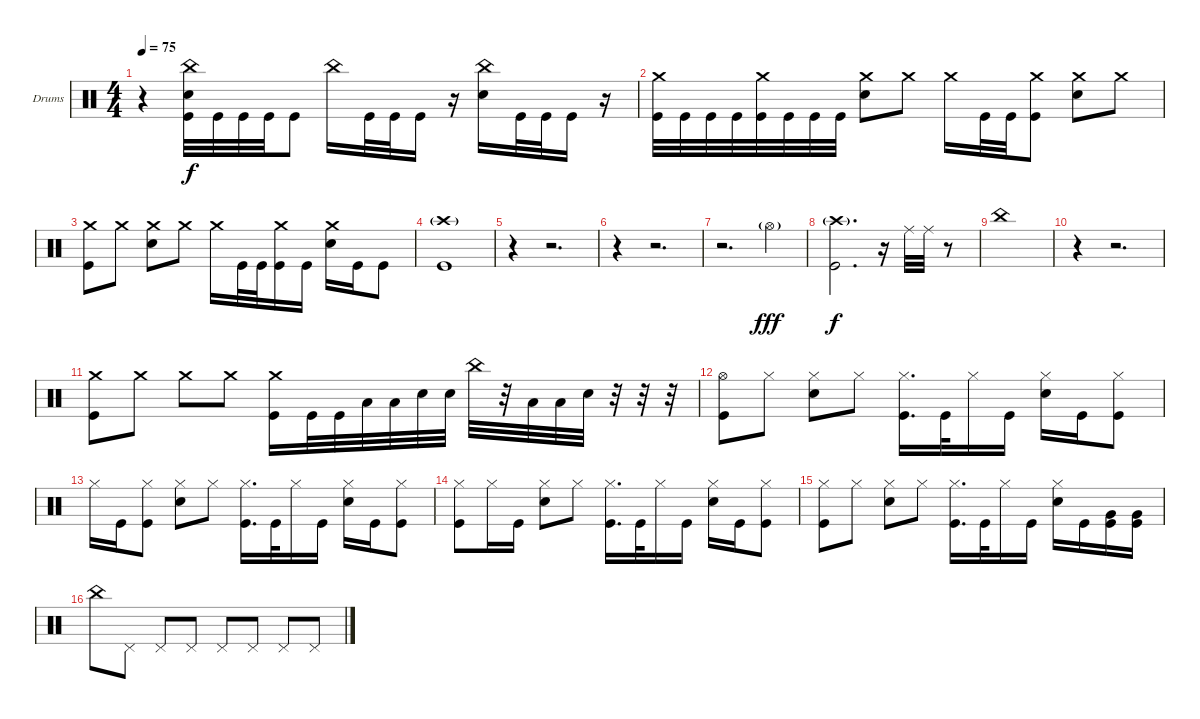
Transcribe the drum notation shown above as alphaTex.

\bracketExtendMode groupsimilarinstruments
\firstSystemTrackNameOrientation horizontal
\otherSystemsTrackNameOrientation horizontal
\track ("Drumkit" "Drums") {instrument percussion}
\staff {score}
\articulation defaults
\ts (4 4)
\tempo 75
\clef neutral
\ks c
r.4{dy f} ("China (hit)" "Snare (hit) 2" "Kick (hit)").32 "Kick (hit)".32 "Kick (hit)".32 "Kick (hit)".32 "Kick (hit)".8 "China (hit)".16 "Kick (hit)".32 "Kick (hit)".32 "Kick (hit)".16 r.16 ("China (hit)" "Snare (hit) 2").16 "Kick (hit)".32 "Kick (hit)".32 "Kick (hit)".16 r.16 |
("Kick (hit)" "Crash medium (hit)").32 "Kick (hit)".32 "Kick (hit)".32 "Kick (hit)".32 ("Kick (hit)" "Crash medium (hit)").32 "Kick (hit)".32 "Kick (hit)".32 "Kick (hit)".32 ("Snare (hit) 2" "Crash medium (hit)").8 "Crash medium (hit)".8 "Crash medium (hit)".16 "Kick (hit)".32 "Kick (hit)".32 ("Kick (hit)" "Crash medium (hit)").8 ("Snare (hit) 2" "Crash medium (hit)").8 "Crash medium (hit)".8 |
("Kick (hit)" "Crash medium (hit)").8 "Crash medium (hit)".8 ("Snare (hit) 2" "Crash medium (hit)").8 "Crash medium (hit)".8 "Crash medium (hit)".16 "Kick (hit)".32 "Kick (hit)".32 ("Kick (hit)" "Crash medium (hit)").16 "Kick (hit)".16 ("Snare (hit) 2" "Crash medium (hit)").16 "Kick (hit)".16 "Kick (hit)".8 |
("Crash high (hit)"{g} "Kick (hit)").1 |
r.4 r.2{d} |
r.4 r.2{d} |
r.2{d} "Hi-Hat (open)"{g}.4{dy fff} |
("Kick (hit)" "Crash high (hit)"{g}).2{d dy f} r.16 "Ride (middle)".32 "Ride (middle)".32 r.8 |
"China (hit)".1 |
r.4 r.2{d} |
("Kick (hit)" "Crash medium (hit)").8 "Crash medium (hit)".8 "Crash medium (hit)".8 "Crash medium (hit)".8 ("Kick (hit)" "Crash medium (hit)").16 "Kick (hit)".32 "Kick (hit)".32 "Low Tom (hit)".32 "Low Tom (hit)".32 "Snare (hit) 2".32 "Snare (hit) 2".32 "China (hit)".32 r.32 "Low Tom (hit)".32 "Low Tom (hit)".32 "Snare (hit) 2".32 r.32 r.32 r.32 |
("Kick (hit)" "Hi-Hat (open)").8 "Hi-Hat (closed)".8 ("Snare (hit) 2" "Hi-Hat (closed)").8 "Hi-Hat (closed)".8 ("Kick (hit)" "Hi-Hat (closed)").16{d} "Kick (hit)".32 "Hi-Hat (closed)".16 "Kick (hit)".16 ("Snare (hit) 2" "Hi-Hat (closed)").16 "Kick (hit)".16 ("Kick (hit)" "Hi-Hat (closed)").8 |
"Hi-Hat (closed)".16 "Kick (hit)".16 ("Kick (hit)" "Hi-Hat (closed)").8 ("Snare (hit) 2" "Hi-Hat (closed)").8 "Hi-Hat (closed)".8 ("Kick (hit)" "Hi-Hat (closed)").16{d} "Kick (hit)".32 "Hi-Hat (closed)".16 "Kick (hit)".16 ("Snare (hit) 2" "Hi-Hat (closed)").16 "Kick (hit)".16 ("Kick (hit)" "Hi-Hat (closed)").8 |
("Kick (hit)" "Hi-Hat (closed)").8 "Hi-Hat (closed)".16 "Kick (hit)".16 ("Snare (hit) 2" "Hi-Hat (closed)").8 "Hi-Hat (closed)".8 ("Kick (hit)" "Hi-Hat (closed)").16{d} "Kick (hit)".32 "Hi-Hat (closed)".16 "Kick (hit)".16 ("Snare (hit) 2" "Hi-Hat (closed)").16 "Kick (hit)".16 ("Kick (hit)" "Hi-Hat (closed)").8 |
("Kick (hit)" "Hi-Hat (closed)").8 "Hi-Hat (closed)".8 ("Snare (hit) 2" "Hi-Hat (closed)").8 "Hi-Hat (closed)".8 ("Kick (hit)" "Hi-Hat (closed)").16{d} "Kick (hit)".32 "Hi-Hat (closed)".16 "Kick (hit)".16 ("Snare (hit) 2" "Hi-Hat (closed)").16 "Kick (hit)".16 ("Kick (hit)" "Very Low Tom (hit)").16 ("Very Low Tom (hit)" "Kick (hit)").16 |
"China (hit)".8 "Pedal Hi-Hat (hit)".8 "Pedal Hi-Hat (hit)".8 "Pedal Hi-Hat (hit)".8 "Pedal Hi-Hat (hit)".8 "Pedal Hi-Hat (hit)".8 "Pedal Hi-Hat (hit)".8 "Pedal Hi-Hat (hit)".8
